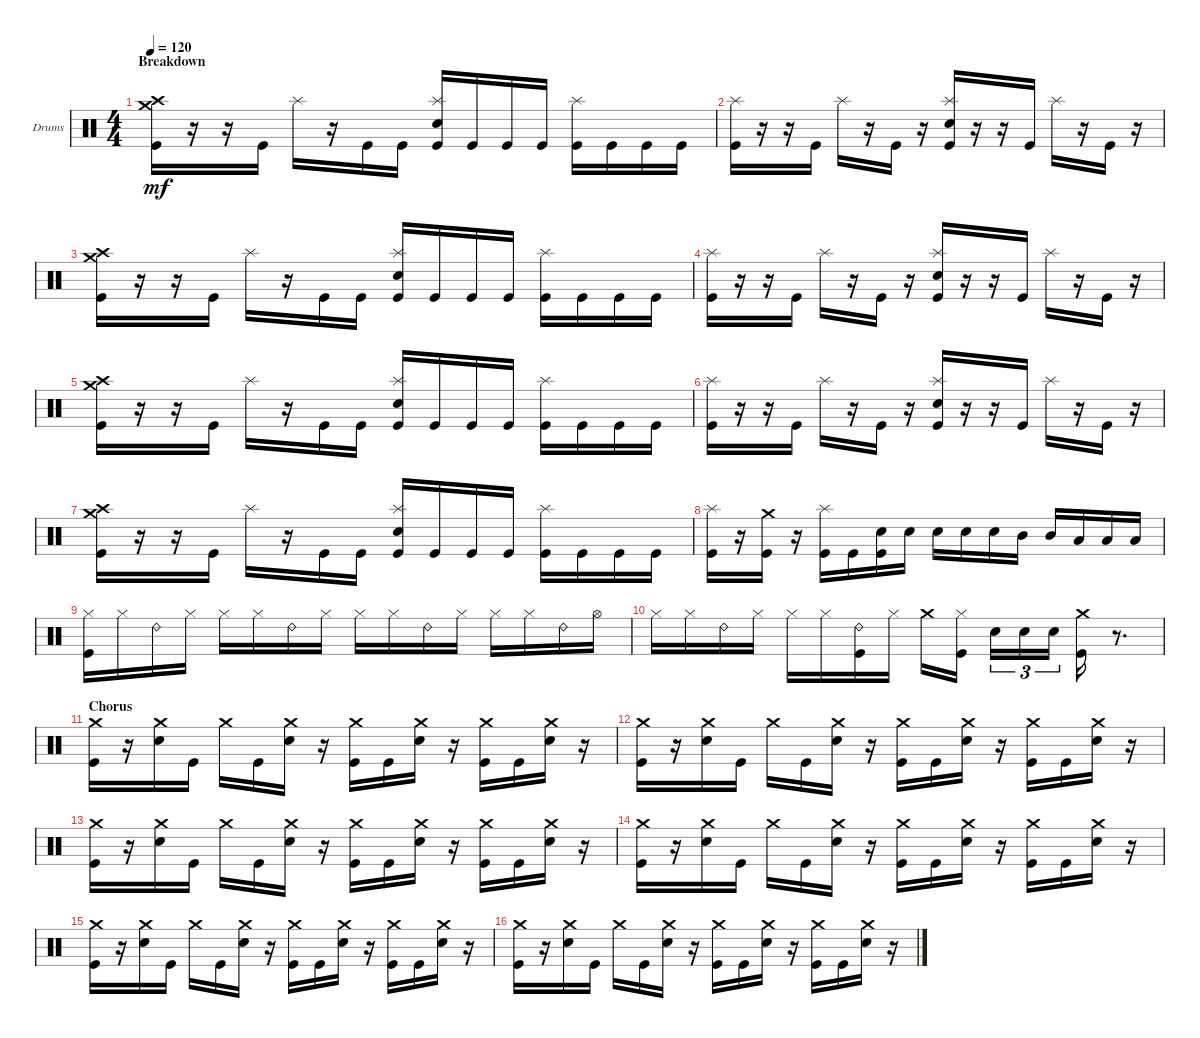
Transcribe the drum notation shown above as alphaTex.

\bracketExtendMode groupsimilarinstruments
\firstSystemTrackNameOrientation horizontal
\otherSystemsTrackNameOrientation horizontal
\track ("Drumkit" "Drums") {instrument percussion}
\staff {score}
\articulation defaults
\ts (4 4)
\section ("" "Breakdown")
\tempo 120
\clef neutral
\ks c
("Crash medium (hit)" "Crash high (hit)" "Kick (hit)").16{dy mf} r.16 r.16 "Kick (hit)".16 "Splash (hit)".16 r.16 "Kick (hit)".16 "Kick (hit)".16 ("Splash (hit)" "Snare (hit) 2" "Kick (hit)").16 "Kick (hit)".16 "Kick (hit)".16 "Kick (hit)".16 ("Splash (hit)" "Kick (hit)").16 "Kick (hit)".16 "Kick (hit)".16 "Kick (hit)".16 |
("Splash (hit)" "Kick (hit)").16 r.16 r.16 "Kick (hit)".16 "Splash (hit)".16 r.16 "Kick (hit)".16 r.16 ("Splash (hit)" "Snare (hit) 2" "Kick (hit)").16 r.16 r.16 "Kick (hit)".16 "Splash (hit)".16 r.16 "Kick (hit)".16 r.16 |
("Crash medium (hit)" "Crash high (hit)" "Kick (hit)").16 r.16 r.16 "Kick (hit)".16 "Splash (hit)".16 r.16 "Kick (hit)".16 "Kick (hit)".16 ("Splash (hit)" "Snare (hit) 2" "Kick (hit)").16 "Kick (hit)".16 "Kick (hit)".16 "Kick (hit)".16 ("Splash (hit)" "Kick (hit)").16 "Kick (hit)".16 "Kick (hit)".16 "Kick (hit)".16 |
("Splash (hit)" "Kick (hit)").16 r.16 r.16 "Kick (hit)".16 "Splash (hit)".16 r.16 "Kick (hit)".16 r.16 ("Splash (hit)" "Snare (hit) 2" "Kick (hit)").16 r.16 r.16 "Kick (hit)".16 "Splash (hit)".16 r.16 "Kick (hit)".16 r.16 |
("Crash medium (hit)" "Crash high (hit)" "Kick (hit)").16 r.16 r.16 "Kick (hit)".16 "Splash (hit)".16 r.16 "Kick (hit)".16 "Kick (hit)".16 ("Splash (hit)" "Snare (hit) 2" "Kick (hit)").16 "Kick (hit)".16 "Kick (hit)".16 "Kick (hit)".16 ("Splash (hit)" "Kick (hit)").16 "Kick (hit)".16 "Kick (hit)".16 "Kick (hit)".16 |
("Splash (hit)" "Kick (hit)").16 r.16 r.16 "Kick (hit)".16 "Splash (hit)".16 r.16 "Kick (hit)".16 r.16 ("Splash (hit)" "Snare (hit) 2" "Kick (hit)").16 r.16 r.16 "Kick (hit)".16 "Splash (hit)".16 r.16 "Kick (hit)".16 r.16 |
("Crash medium (hit)" "Crash high (hit)" "Kick (hit)").16 r.16 r.16 "Kick (hit)".16 "Splash (hit)".16 r.16 "Kick (hit)".16 "Kick (hit)".16 ("Splash (hit)" "Snare (hit) 2" "Kick (hit)").16 "Kick (hit)".16 "Kick (hit)".16 "Kick (hit)".16 ("Splash (hit)" "Kick (hit)").16 "Kick (hit)".16 "Kick (hit)".16 "Kick (hit)".16 |
("Kick (hit)" "Splash (hit)").16 r.16 ("Kick (hit)" "Crash medium (hit)").16 r.16 ("Kick (hit)" "Splash (hit)").16 "Kick (hit)".16 ("Snare (hit) 2" "Kick (hit)").16 "Snare (hit) 2".16 "Snare (hit) 2".16 "Snare (hit) 2".16 "Snare (hit) 2".16 "Mid Tom (hit)".16 "Mid Tom (hit)".16 "Low Tom (hit)".16 "Low Tom (hit)".16 "Low Tom (hit)".16 |
("Kick (hit)" "Hi-Hat (closed)").16 "Hi-Hat (closed)".16 "Ride (bell) 2".16 "Hi-Hat (closed)".16 "Hi-Hat (closed)".16 "Hi-Hat (closed)".16 "Ride (bell) 2".16 "Hi-Hat (closed)".16 "Hi-Hat (closed)".16 "Hi-Hat (closed)".16 "Ride (bell) 2".16 "Hi-Hat (closed)".16 "Hi-Hat (closed)".16 "Hi-Hat (closed)".16 "Ride (bell) 2".16 "Hi-Hat (open)".16 |
"Hi-Hat (closed)".16 "Hi-Hat (closed)".16 "Ride (bell) 2".16 "Hi-Hat (closed)".16 "Hi-Hat (closed)".16 "Hi-Hat (closed)".16 ("Ride (bell) 2" "Kick (hit)").16 "Hi-Hat (closed)".16 "Crash medium (hit)".16 ("Hi-Hat (closed)" "Kick (hit)").16 "Snare (hit) 2".16{tu (3 2)} "Snare (hit) 2".16{tu (3 2)} "Snare (hit) 2".16{tu (3 2)} ("Crash medium (hit)" "Kick (hit)").16 r.8{d} |
\section ("" "Chorus")
("Kick (hit)" "Crash medium (hit)").16 r.16 ("Snare (hit) 2" "Crash medium (hit)").16 "Kick (hit)".16 "Crash medium (hit)".16 "Kick (hit)".16 ("Snare (hit) 2" "Crash medium (hit)").16 r.16 ("Kick (hit)" "Crash medium (hit)").16 "Kick (hit)".16 ("Snare (hit) 2" "Crash medium (hit)").16 r.16 ("Kick (hit)" "Crash medium (hit)").16 "Kick (hit)".16 ("Snare (hit) 2" "Crash medium (hit)").16 r.16 |
("Kick (hit)" "Crash medium (hit)").16 r.16 ("Snare (hit) 2" "Crash medium (hit)").16 "Kick (hit)".16 "Crash medium (hit)".16 "Kick (hit)".16 ("Snare (hit) 2" "Crash medium (hit)").16 r.16 ("Kick (hit)" "Crash medium (hit)").16 "Kick (hit)".16 ("Snare (hit) 2" "Crash medium (hit)").16 r.16 ("Kick (hit)" "Crash medium (hit)").16 "Kick (hit)".16 ("Snare (hit) 2" "Crash medium (hit)").16 r.16 |
("Kick (hit)" "Crash medium (hit)").16 r.16 ("Snare (hit) 2" "Crash medium (hit)").16 "Kick (hit)".16 "Crash medium (hit)".16 "Kick (hit)".16 ("Snare (hit) 2" "Crash medium (hit)").16 r.16 ("Kick (hit)" "Crash medium (hit)").16 "Kick (hit)".16 ("Snare (hit) 2" "Crash medium (hit)").16 r.16 ("Kick (hit)" "Crash medium (hit)").16 "Kick (hit)".16 ("Snare (hit) 2" "Crash medium (hit)").16 r.16 |
("Kick (hit)" "Crash medium (hit)").16 r.16 ("Snare (hit) 2" "Crash medium (hit)").16 "Kick (hit)".16 "Crash medium (hit)".16 "Kick (hit)".16 ("Snare (hit) 2" "Crash medium (hit)").16 r.16 ("Kick (hit)" "Crash medium (hit)").16 "Kick (hit)".16 ("Snare (hit) 2" "Crash medium (hit)").16 r.16 ("Kick (hit)" "Crash medium (hit)").16 "Kick (hit)".16 ("Snare (hit) 2" "Crash medium (hit)").16 r.16 |
("Kick (hit)" "Crash medium (hit)").16 r.16 ("Snare (hit) 2" "Crash medium (hit)").16 "Kick (hit)".16 "Crash medium (hit)".16 "Kick (hit)".16 ("Snare (hit) 2" "Crash medium (hit)").16 r.16 ("Kick (hit)" "Crash medium (hit)").16 "Kick (hit)".16 ("Snare (hit) 2" "Crash medium (hit)").16 r.16 ("Kick (hit)" "Crash medium (hit)").16 "Kick (hit)".16 ("Snare (hit) 2" "Crash medium (hit)").16 r.16 |
("Kick (hit)" "Crash medium (hit)").16 r.16 ("Snare (hit) 2" "Crash medium (hit)").16 "Kick (hit)".16 "Crash medium (hit)".16 "Kick (hit)".16 ("Snare (hit) 2" "Crash medium (hit)").16 r.16 ("Kick (hit)" "Crash medium (hit)").16 "Kick (hit)".16 ("Snare (hit) 2" "Crash medium (hit)").16 r.16 ("Kick (hit)" "Crash medium (hit)").16 "Kick (hit)".16 ("Snare (hit) 2" "Crash medium (hit)").16 r.16
